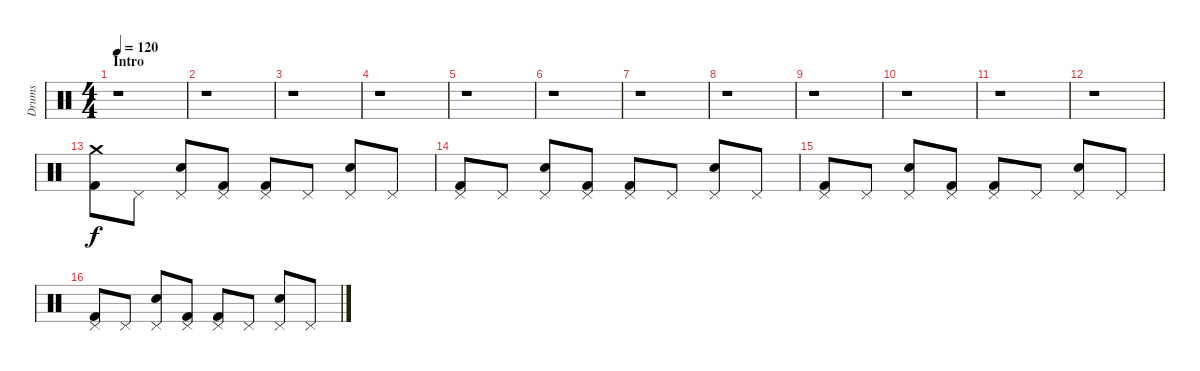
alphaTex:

\track ("Drums" "Drums") {instrument percussion}
\staff {score}
\articulation defaults
\ts (4 4)
\section ("" "Intro")
\tempo 120
\clef neutral
\ks c
r.1{dy f} |
r.1 |
r.1 |
r.1 |
r.1 |
r.1 |
r.1 |
r.1 |
r.1 |
r.1 |
r.1 |
r.1 |
("Crash medium (hit)" "Kick (hit) 2").8 "Pedal Hi-Hat (hit)".8 ("Pedal Hi-Hat (hit)" "Electric Snare (hit)").8 ("Pedal Hi-Hat (hit)" "Kick (hit) 2").8 ("Pedal Hi-Hat (hit)" "Kick (hit) 2").8 "Pedal Hi-Hat (hit)".8 ("Pedal Hi-Hat (hit)" "Electric Snare (hit)").8 "Pedal Hi-Hat (hit)".8 |
("Pedal Hi-Hat (hit)" "Kick (hit) 2").8 "Pedal Hi-Hat (hit)".8 ("Pedal Hi-Hat (hit)" "Electric Snare (hit)").8 ("Pedal Hi-Hat (hit)" "Kick (hit) 2").8 ("Pedal Hi-Hat (hit)" "Kick (hit) 2").8 "Pedal Hi-Hat (hit)".8 ("Pedal Hi-Hat (hit)" "Electric Snare (hit)").8 "Pedal Hi-Hat (hit)".8 |
("Pedal Hi-Hat (hit)" "Kick (hit) 2").8 "Pedal Hi-Hat (hit)".8 ("Pedal Hi-Hat (hit)" "Electric Snare (hit)").8 ("Pedal Hi-Hat (hit)" "Kick (hit) 2").8 ("Pedal Hi-Hat (hit)" "Kick (hit) 2").8 "Pedal Hi-Hat (hit)".8 ("Pedal Hi-Hat (hit)" "Electric Snare (hit)").8 "Pedal Hi-Hat (hit)".8 |
("Pedal Hi-Hat (hit)" "Kick (hit) 2").8 "Pedal Hi-Hat (hit)".8 ("Pedal Hi-Hat (hit)" "Electric Snare (hit)").8 ("Pedal Hi-Hat (hit)" "Kick (hit) 2").8 ("Pedal Hi-Hat (hit)" "Kick (hit) 2").8 "Pedal Hi-Hat (hit)".8 ("Pedal Hi-Hat (hit)" "Electric Snare (hit)").8 "Pedal Hi-Hat (hit)".8
